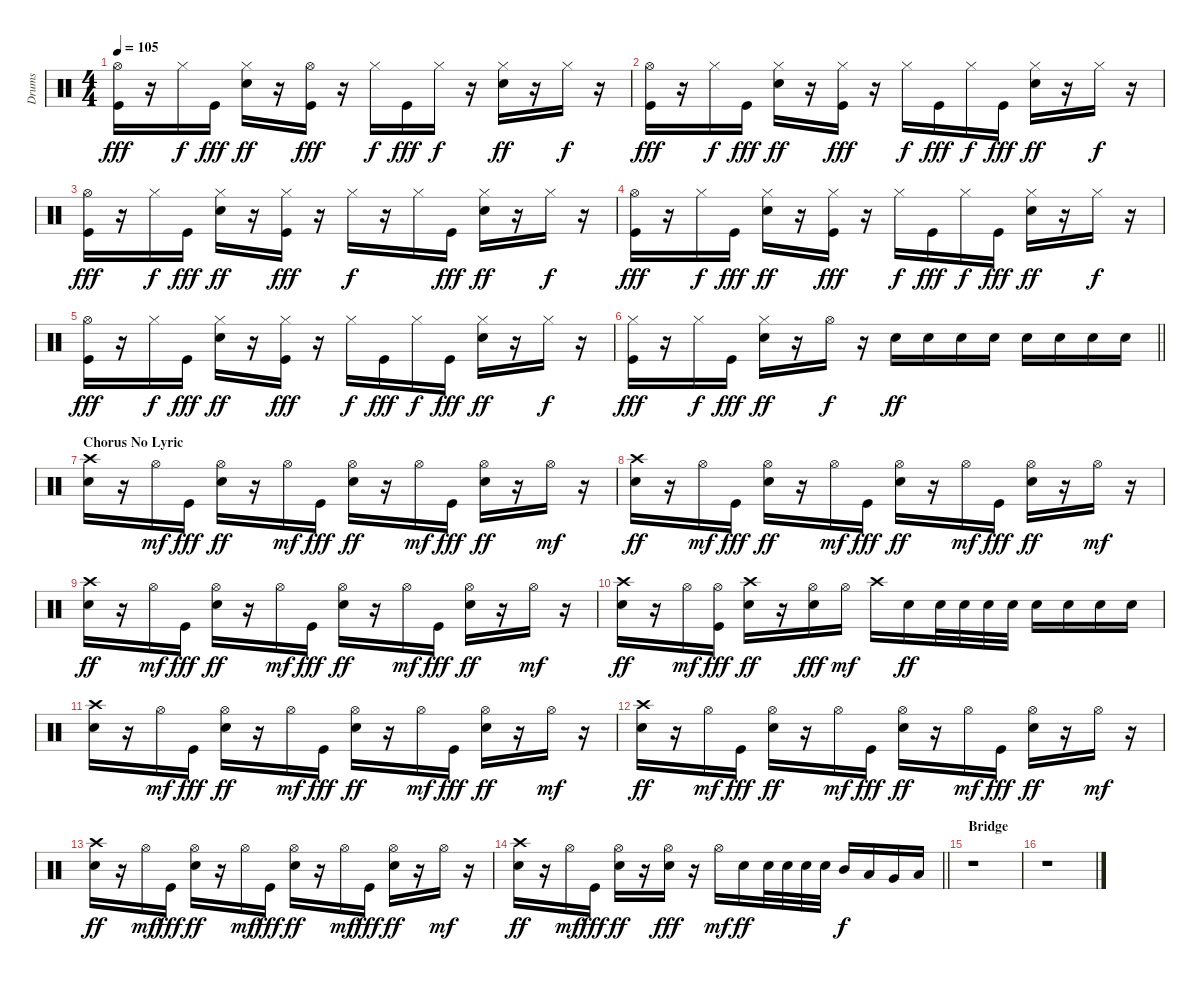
\track ("Drums" "Drums") {instrument percussion}
\staff {score}
\articulation defaults
\ts (4 4)
\tempo 105
\clef neutral
\ks c
("Hi-Hat (open)" "Kick (hit)").16{dy fff} r.16 "Hi-Hat (closed)".16{dy f} "Kick (hit)".16{dy fff} ("Hi-Hat (closed)" "Electric Snare (hit)").16{dy ff} r.16 ("Hi-Hat (open)" "Kick (hit)").16{dy fff} r.16 "Hi-Hat (closed)".16{dy f} "Kick (hit)".16{dy fff} "Hi-Hat (closed)".16{dy f} r.16 ("Hi-Hat (closed)" "Electric Snare (hit)").16{dy ff} r.16 "Hi-Hat (closed)".16{dy f} r.16 |
("Hi-Hat (open)" "Kick (hit)").16{dy fff} r.16 "Hi-Hat (closed)".16{dy f} "Kick (hit)".16{dy fff} ("Hi-Hat (closed)" "Electric Snare (hit)").16{dy ff} r.16 ("Hi-Hat (closed)" "Kick (hit)").16{dy fff} r.16 "Hi-Hat (closed)".16{dy f} "Kick (hit)".16{dy fff} "Hi-Hat (closed)".16{dy f} "Kick (hit)".16{dy fff} ("Hi-Hat (closed)" "Electric Snare (hit)").16{dy ff} r.16 "Hi-Hat (closed)".16{dy f} r.16 |
("Hi-Hat (open)" "Kick (hit)").16{dy fff} r.16 "Hi-Hat (closed)".16{dy f} "Kick (hit)".16{dy fff} ("Hi-Hat (closed)" "Electric Snare (hit)").16{dy ff} r.16 ("Hi-Hat (closed)" "Kick (hit)").16{dy fff} r.16 "Hi-Hat (closed)".16{dy f} r.16 "Hi-Hat (closed)".16 "Kick (hit)".16{dy fff} ("Hi-Hat (closed)" "Electric Snare (hit)").16{dy ff} r.16 "Hi-Hat (closed)".16{dy f} r.16 |
("Hi-Hat (open)" "Kick (hit)").16{dy fff} r.16 "Hi-Hat (closed)".16{dy f} "Kick (hit)".16{dy fff} ("Hi-Hat (closed)" "Electric Snare (hit)").16{dy ff} r.16 ("Hi-Hat (closed)" "Kick (hit)").16{dy fff} r.16 "Hi-Hat (closed)".16{dy f} "Kick (hit)".16{dy fff} "Hi-Hat (closed)".16{dy f} "Kick (hit)".16{dy fff} ("Hi-Hat (closed)" "Electric Snare (hit)").16{dy ff} r.16 "Hi-Hat (closed)".16{dy f} r.16 |
("Hi-Hat (open)" "Kick (hit)").16{dy fff} r.16 "Hi-Hat (closed)".16{dy f} "Kick (hit)".16{dy fff} ("Hi-Hat (closed)" "Electric Snare (hit)").16{dy ff} r.16 ("Hi-Hat (closed)" "Kick (hit)").16{dy fff} r.16 "Hi-Hat (closed)".16{dy f} "Kick (hit)".16{dy fff} "Hi-Hat (closed)".16{dy f} "Kick (hit)".16{dy fff} ("Hi-Hat (closed)" "Electric Snare (hit)").16{dy ff} r.16 "Hi-Hat (closed)".16{dy f} r.16 |
\barLineRight lightlight
("Hi-Hat (closed)" "Kick (hit)").16{dy fff} r.16 "Hi-Hat (closed)".16{dy f} "Kick (hit)".16{dy fff} ("Hi-Hat (closed)" "Electric Snare (hit)").16{dy ff} r.16 "Hi-Hat (open)".16{dy f} r.16 "Electric Snare (hit)".16{dy ff} "Electric Snare (hit)".16 "Electric Snare (hit)".16 "Electric Snare (hit)".16 "Electric Snare (hit)".16 "Electric Snare (hit)".16 "Electric Snare (hit)".16 "Electric Snare (hit)".16 |
\section ("" "Chorus No Lyric")
("Crash high (hit)" "Electric Snare (hit)").16 r.16 "Hi-Hat (open)".16{dy mf} "Kick (hit)".16{dy fff} ("Hi-Hat (open)" "Electric Snare (hit)").16{dy ff} r.16 "Hi-Hat (open)".16{dy mf} "Kick (hit)".16{dy fff} ("Hi-Hat (open)" "Electric Snare (hit)").16{dy ff} r.16 "Hi-Hat (open)".16{dy mf} "Kick (hit)".16{dy fff} ("Hi-Hat (open)" "Electric Snare (hit)").16{dy ff} r.16 "Hi-Hat (open)".16{dy mf} r.16 |
("Crash high (hit)" "Electric Snare (hit)").16{dy ff} r.16 "Hi-Hat (open)".16{dy mf} "Kick (hit)".16{dy fff} ("Hi-Hat (open)" "Electric Snare (hit)").16{dy ff} r.16 "Hi-Hat (open)".16{dy mf} "Kick (hit)".16{dy fff} ("Hi-Hat (open)" "Electric Snare (hit)").16{dy ff} r.16 "Hi-Hat (open)".16{dy mf} "Kick (hit)".16{dy fff} ("Hi-Hat (open)" "Electric Snare (hit)").16{dy ff} r.16 "Hi-Hat (open)".16{dy mf} r.16 |
("Crash high (hit)" "Electric Snare (hit)").16{dy ff} r.16 "Hi-Hat (open)".16{dy mf} "Kick (hit)".16{dy fff} ("Hi-Hat (open)" "Electric Snare (hit)").16{dy ff} r.16 "Hi-Hat (open)".16{dy mf} "Kick (hit)".16{dy fff} ("Hi-Hat (open)" "Electric Snare (hit)").16{dy ff} r.16 "Hi-Hat (open)".16{dy mf} "Kick (hit)".16{dy fff} ("Hi-Hat (open)" "Electric Snare (hit)").16{dy ff} r.16 "Hi-Hat (open)".16{dy mf} r.16 |
("Crash high (hit)" "Electric Snare (hit)").16{dy ff} r.16 "Hi-Hat (open)".16{dy mf} ("Hi-Hat (open)" "Kick (hit)").16{dy fff} ("Crash high (hit)" "Electric Snare (hit)").16{dy ff} r.16 ("Hi-Hat (open)" "Electric Snare (hit)").16{dy fff} "Hi-Hat (open)".16{dy mf} "Crash high (hit)".16 "Electric Snare (hit)".16{dy ff} "Electric Snare (hit)".32 "Electric Snare (hit)".32 "Electric Snare (hit)".32 "Electric Snare (hit)".32 "Electric Snare (hit)".16 "Electric Snare (hit)".16 "Electric Snare (hit)".16 "Electric Snare (hit)".16 |
("Crash high (hit)" "Electric Snare (hit)").16 r.16 "Hi-Hat (open)".16{dy mf} "Kick (hit)".16{dy fff} ("Hi-Hat (open)" "Electric Snare (hit)").16{dy ff} r.16 "Hi-Hat (open)".16{dy mf} "Kick (hit)".16{dy fff} ("Hi-Hat (open)" "Electric Snare (hit)").16{dy ff} r.16 "Hi-Hat (open)".16{dy mf} "Kick (hit)".16{dy fff} ("Hi-Hat (open)" "Electric Snare (hit)").16{dy ff} r.16 "Hi-Hat (open)".16{dy mf} r.16 |
("Crash high (hit)" "Electric Snare (hit)").16{dy ff} r.16 "Hi-Hat (open)".16{dy mf} "Kick (hit)".16{dy fff} ("Hi-Hat (open)" "Electric Snare (hit)").16{dy ff} r.16 "Hi-Hat (open)".16{dy mf} "Kick (hit)".16{dy fff} ("Hi-Hat (open)" "Electric Snare (hit)").16{dy ff} r.16 "Hi-Hat (open)".16{dy mf} "Kick (hit)".16{dy fff} ("Hi-Hat (open)" "Electric Snare (hit)").16{dy ff} r.16 "Hi-Hat (open)".16{dy mf} r.16 |
("Crash high (hit)" "Electric Snare (hit)").16{dy ff} r.16 "Hi-Hat (open)".16{dy mf} "Kick (hit)".16{dy fff} ("Hi-Hat (open)" "Electric Snare (hit)").16{dy ff} r.16 "Hi-Hat (open)".16{dy mf} "Kick (hit)".16{dy fff} ("Hi-Hat (open)" "Electric Snare (hit)").16{dy ff} r.16 "Hi-Hat (open)".16{dy mf} "Kick (hit)".16{dy fff} ("Hi-Hat (open)" "Electric Snare (hit)").16{dy ff} r.16 "Hi-Hat (open)".16{dy mf} r.16 |
\barLineRight lightlight
("Crash high (hit)" "Electric Snare (hit)").16{dy ff} r.16 "Hi-Hat (open)".16{dy mf} "Kick (hit)".16{dy fff} ("Hi-Hat (open)" "Electric Snare (hit)").16{dy ff} r.16 ("Hi-Hat (open)" "Electric Snare (hit)").16{dy fff} r.16 "Hi-Hat (open)".16{dy mf} "Electric Snare (hit)".16{dy ff} "Electric Snare (hit)".32 "Electric Snare (hit)".32 "Electric Snare (hit)".32 "Electric Snare (hit)".32 "Mid Tom (hit)".16{dy f} "Low Tom (hit)".16 "Very Low Tom (hit)".16 "Low Floor Tom (hit)".16 |
\section ("" "Bridge")
r.1 |
r.1
